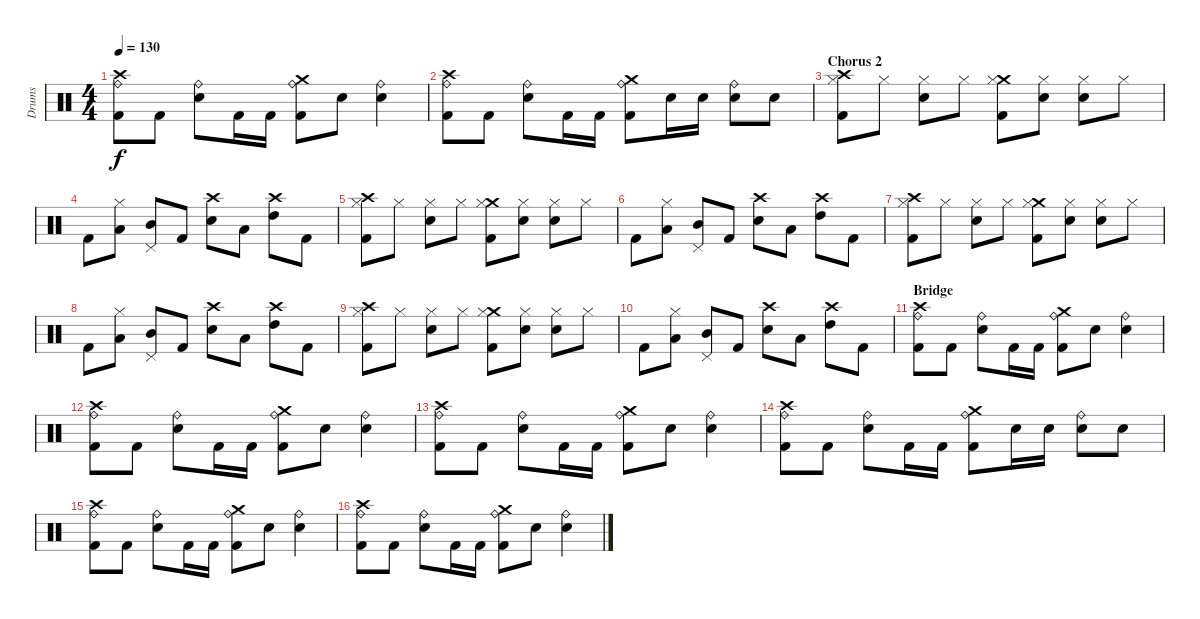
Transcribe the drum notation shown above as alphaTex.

\track ("Drums" "Drums") {instrument percussion}
\staff {score}
\articulation defaults
\ts (4 4)
\tempo 130
\clef neutral
\ks c
("Crash high (hit)" "Ride (bell)" "Kick (hit) 2").8{dy f} "Kick (hit) 2".8 ("Ride (bell)" "Electric Snare (hit)").8 "Kick (hit) 2".16 "Kick (hit) 2".16 ("Crash medium (hit)" "Ride (bell)" "Kick (hit) 2").8 "Electric Snare (hit)".8 ("Ride (bell)" "Electric Snare (hit)").4 |
("Crash high (hit)" "Ride (bell)" "Kick (hit) 2").8 "Kick (hit) 2".8 ("Ride (bell)" "Electric Snare (hit)").8 "Kick (hit) 2".16 "Kick (hit) 2".16 ("Crash medium (hit)" "Ride (bell)" "Kick (hit) 2").8 "Electric Snare (hit)".16 "Electric Snare (hit)".16 ("Ride (bell)" "Electric Snare (hit)").8 "Electric Snare (hit)".8 |
\section ("" "Chorus 2")
("Crash high (hit)" "Hi-Hat (closed)" "Kick (hit) 2").8 "Hi-Hat (closed)".8 ("Hi-Hat (closed)" "Electric Snare (hit)").8 "Hi-Hat (closed)".8 ("Crash medium (hit)" "Hi-Hat (closed)" "Kick (hit) 2").8 ("Hi-Hat (closed)" "Electric Snare (hit)").8 ("Hi-Hat (closed)" "Electric Snare (hit)").8 "Hi-Hat (closed)".8 |
"Kick (hit) 2".8 ("Hi-Hat (closed)" "Low Tom (hit)").8 ("Pedal Hi-Hat (hit)" "Mid Tom (hit)").8 "Kick (hit) 2".8 ("Crash high (hit)" "Electric Snare (hit)").8 "Low Tom (hit)".8 ("Crash high (hit)" "High Tom (hit)").8 "Kick (hit) 2".8 |
("Crash high (hit)" "Hi-Hat (closed)" "Kick (hit) 2").8 "Hi-Hat (closed)".8 ("Hi-Hat (closed)" "Electric Snare (hit)").8 "Hi-Hat (closed)".8 ("Crash medium (hit)" "Hi-Hat (closed)" "Kick (hit) 2").8 ("Hi-Hat (closed)" "Electric Snare (hit)").8 ("Hi-Hat (closed)" "Electric Snare (hit)").8 "Hi-Hat (closed)".8 |
"Kick (hit) 2".8 ("Hi-Hat (closed)" "Low Tom (hit)").8 ("Pedal Hi-Hat (hit)" "Mid Tom (hit)").8 "Kick (hit) 2".8 ("Crash high (hit)" "Electric Snare (hit)").8 "Low Tom (hit)".8 ("Crash high (hit)" "High Tom (hit)").8 "Kick (hit) 2".8 |
("Crash high (hit)" "Hi-Hat (closed)" "Kick (hit) 2").8 "Hi-Hat (closed)".8 ("Hi-Hat (closed)" "Electric Snare (hit)").8 "Hi-Hat (closed)".8 ("Crash medium (hit)" "Hi-Hat (closed)" "Kick (hit) 2").8 ("Hi-Hat (closed)" "Electric Snare (hit)").8 ("Hi-Hat (closed)" "Electric Snare (hit)").8 "Hi-Hat (closed)".8 |
"Kick (hit) 2".8 ("Hi-Hat (closed)" "Low Tom (hit)").8 ("Pedal Hi-Hat (hit)" "Mid Tom (hit)").8 "Kick (hit) 2".8 ("Crash high (hit)" "Electric Snare (hit)").8 "Low Tom (hit)".8 ("Crash high (hit)" "High Tom (hit)").8 "Kick (hit) 2".8 |
("Crash high (hit)" "Hi-Hat (closed)" "Kick (hit) 2").8 "Hi-Hat (closed)".8 ("Hi-Hat (closed)" "Electric Snare (hit)").8 "Hi-Hat (closed)".8 ("Crash medium (hit)" "Hi-Hat (closed)" "Kick (hit) 2").8 ("Hi-Hat (closed)" "Electric Snare (hit)").8 ("Hi-Hat (closed)" "Electric Snare (hit)").8 "Hi-Hat (closed)".8 |
"Kick (hit) 2".8 ("Hi-Hat (closed)" "Low Tom (hit)").8 ("Pedal Hi-Hat (hit)" "Mid Tom (hit)").8 "Kick (hit) 2".8 ("Crash high (hit)" "Electric Snare (hit)").8 "Low Tom (hit)".8 ("Crash high (hit)" "High Tom (hit)").8 "Kick (hit) 2".8 |
\section ("" "Bridge")
("Crash high (hit)" "Ride (bell)" "Kick (hit) 2").8 "Kick (hit) 2".8 ("Ride (bell)" "Electric Snare (hit)").8 "Kick (hit) 2".16 "Kick (hit) 2".16 ("Crash medium (hit)" "Ride (bell)" "Kick (hit) 2").8 "Electric Snare (hit)".8 ("Ride (bell)" "Electric Snare (hit)").4 |
("Crash high (hit)" "Ride (bell)" "Kick (hit) 2").8 "Kick (hit) 2".8 ("Ride (bell)" "Electric Snare (hit)").8 "Kick (hit) 2".16 "Kick (hit) 2".16 ("Crash medium (hit)" "Ride (bell)" "Kick (hit) 2").8 "Electric Snare (hit)".8 ("Ride (bell)" "Electric Snare (hit)").4 |
("Crash high (hit)" "Ride (bell)" "Kick (hit) 2").8 "Kick (hit) 2".8 ("Ride (bell)" "Electric Snare (hit)").8 "Kick (hit) 2".16 "Kick (hit) 2".16 ("Crash medium (hit)" "Ride (bell)" "Kick (hit) 2").8 "Electric Snare (hit)".8 ("Ride (bell)" "Electric Snare (hit)").4 |
("Crash high (hit)" "Ride (bell)" "Kick (hit) 2").8 "Kick (hit) 2".8 ("Ride (bell)" "Electric Snare (hit)").8 "Kick (hit) 2".16 "Kick (hit) 2".16 ("Crash medium (hit)" "Ride (bell)" "Kick (hit) 2").8 "Electric Snare (hit)".16 "Electric Snare (hit)".16 ("Ride (bell)" "Electric Snare (hit)").8 "Electric Snare (hit)".8 |
("Crash high (hit)" "Ride (bell)" "Kick (hit) 2").8 "Kick (hit) 2".8 ("Ride (bell)" "Electric Snare (hit)").8 "Kick (hit) 2".16 "Kick (hit) 2".16 ("Crash medium (hit)" "Ride (bell)" "Kick (hit) 2").8 "Electric Snare (hit)".8 ("Ride (bell)" "Electric Snare (hit)").4 |
("Crash high (hit)" "Ride (bell)" "Kick (hit) 2").8 "Kick (hit) 2".8 ("Ride (bell)" "Electric Snare (hit)").8 "Kick (hit) 2".16 "Kick (hit) 2".16 ("Crash medium (hit)" "Ride (bell)" "Kick (hit) 2").8 "Electric Snare (hit)".8 ("Ride (bell)" "Electric Snare (hit)").4
